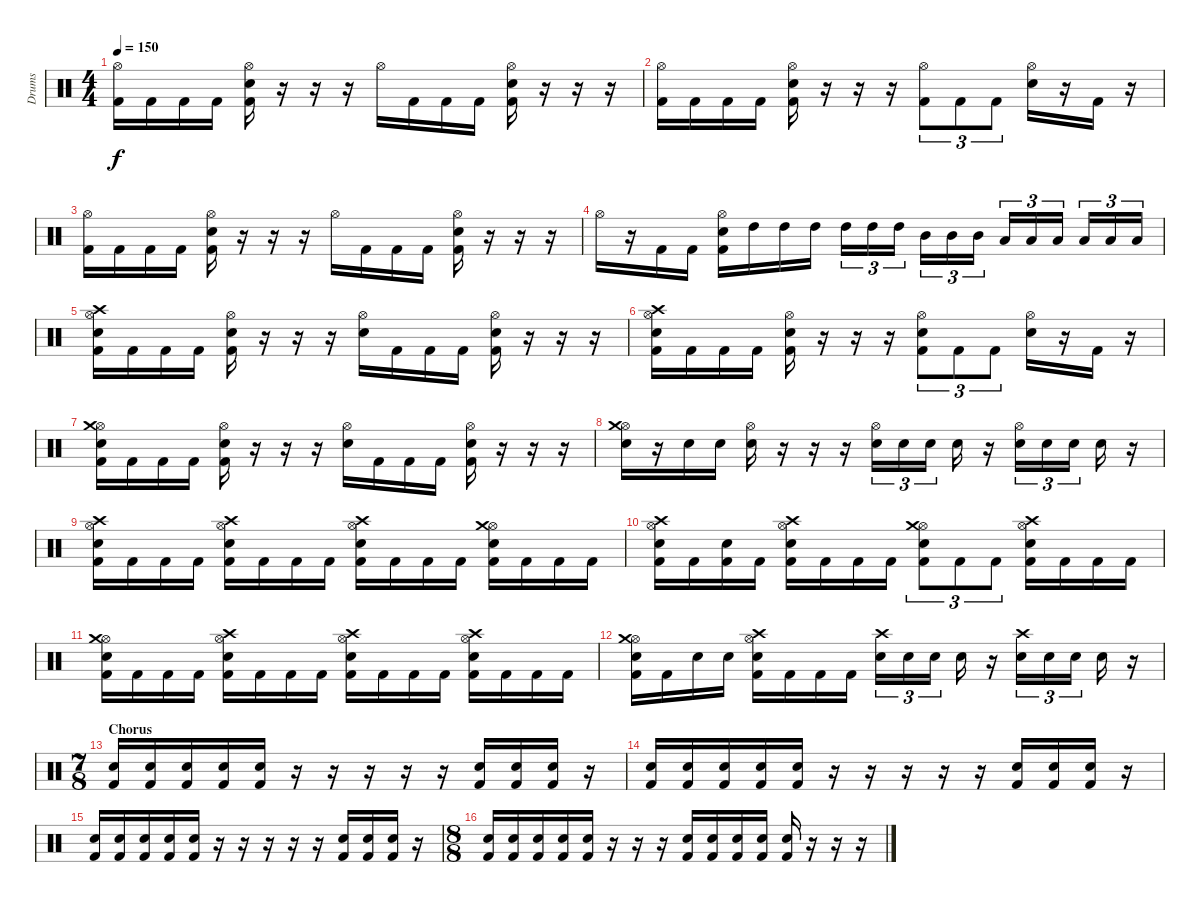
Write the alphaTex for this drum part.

\track ("Drums" "Drums") {instrument percussion}
\staff {score}
\articulation defaults
\ts (4 4)
\tempo 150
\clef neutral
\ks c
("Hi-Hat (open)" "Kick (hit) 2").16{dy f} "Kick (hit) 2".16 "Kick (hit) 2".16 "Kick (hit) 2".16 ("Hi-Hat (open)" "Electric Snare (hit)" "Kick (hit) 2").16 r.16 r.16 r.16 "Hi-Hat (open)".16 "Kick (hit) 2".16 "Kick (hit) 2".16 "Kick (hit) 2".16 ("Hi-Hat (open)" "Electric Snare (hit)" "Kick (hit) 2").16 r.16 r.16 r.16 |
("Hi-Hat (open)" "Kick (hit) 2").16 "Kick (hit) 2".16 "Kick (hit) 2".16 "Kick (hit) 2".16 ("Hi-Hat (open)" "Electric Snare (hit)" "Kick (hit) 2").16 r.16 r.16 r.16 ("Hi-Hat (open)" "Kick (hit) 2").8{tu (3 2)} "Kick (hit) 2".8{tu (3 2)} "Kick (hit) 2".8{tu (3 2)} ("Hi-Hat (open)" "Electric Snare (hit)").16 r.16 "Kick (hit) 2".16 r.16 |
("Hi-Hat (open)" "Kick (hit) 2").16 "Kick (hit) 2".16 "Kick (hit) 2".16 "Kick (hit) 2".16 ("Hi-Hat (open)" "Electric Snare (hit)" "Kick (hit) 2").16 r.16 r.16 r.16 "Hi-Hat (open)".16 "Kick (hit) 2".16 "Kick (hit) 2".16 "Kick (hit) 2".16 ("Hi-Hat (open)" "Electric Snare (hit)" "Kick (hit) 2").16 r.16 r.16 r.16 |
"Hi-Hat (open)".16 r.16 "Kick (hit) 2".16 "Kick (hit) 2".16 ("Hi-Hat (open)" "Electric Snare (hit)" "Kick (hit) 2").16 "High Tom (hit)".16 "High Tom (hit)".16 "High Tom (hit)".16 "High Tom (hit)".16{tu (3 2)} "High Tom (hit)".16{tu (3 2)} "High Tom (hit)".16{tu (3 2)} "Mid Tom (hit)".16{tu (3 2)} "Mid Tom (hit)".16{tu (3 2)} "Mid Tom (hit)".16{tu (3 2)} "Low Tom (hit)".16{tu (3 2)} "Low Tom (hit)".16{tu (3 2)} "Low Tom (hit)".16{tu (3 2)} "Low Tom (hit)".16{tu (3 2)} "Low Tom (hit)".16{tu (3 2)} "Low Tom (hit)".16{tu (3 2)} |
("Hi-Hat (open)" "Electric Snare (hit)" "Crash high (hit)" "Kick (hit) 2").16 "Kick (hit) 2".16 "Kick (hit) 2".16 "Kick (hit) 2".16 ("Hi-Hat (open)" "Electric Snare (hit)" "Kick (hit) 2").16 r.16 r.16 r.16 ("Hi-Hat (open)" "Electric Snare (hit)").16 "Kick (hit) 2".16 "Kick (hit) 2".16 "Kick (hit) 2".16 ("Hi-Hat (open)" "Electric Snare (hit)" "Kick (hit) 2").16 r.16 r.16 r.16 |
("Hi-Hat (open)" "Electric Snare (hit)" "Crash high (hit)" "Kick (hit) 2").16 "Kick (hit) 2".16 "Kick (hit) 2".16 "Kick (hit) 2".16 ("Hi-Hat (open)" "Electric Snare (hit)" "Kick (hit) 2").16 r.16 r.16 r.16 ("Hi-Hat (open)" "Electric Snare (hit)" "Kick (hit) 2").8{tu (3 2)} "Kick (hit) 2".8{tu (3 2)} "Kick (hit) 2".8{tu (3 2)} ("Hi-Hat (open)" "Electric Snare (hit)").16 r.16 "Kick (hit) 2".16 r.16 |
("Hi-Hat (open)" "Crash medium (hit)" "Electric Snare (hit)" "Kick (hit) 2").16 "Kick (hit) 2".16 "Kick (hit) 2".16 "Kick (hit) 2".16 ("Hi-Hat (open)" "Electric Snare (hit)" "Kick (hit) 2").16 r.16 r.16 r.16 ("Hi-Hat (open)" "Electric Snare (hit)").16 "Kick (hit) 2".16 "Kick (hit) 2".16 "Kick (hit) 2".16 ("Hi-Hat (open)" "Electric Snare (hit)" "Kick (hit) 2").16 r.16 r.16 r.16 |
("Hi-Hat (open)" "Crash medium (hit)" "Electric Snare (hit)").16 r.16 "Electric Snare (hit)".16 "Electric Snare (hit)".16 ("Hi-Hat (open)" "Electric Snare (hit)").16 r.16 r.16 r.16 ("Hi-Hat (open)" "Electric Snare (hit)").16{tu (3 2)} "Electric Snare (hit)".16{tu (3 2)} "Electric Snare (hit)".16{tu (3 2)} "Electric Snare (hit)".16 r.16 ("Hi-Hat (open)" "Electric Snare (hit)").16{tu (3 2)} "Electric Snare (hit)".16{tu (3 2)} "Electric Snare (hit)".16{tu (3 2)} "Electric Snare (hit)".16 r.16 |
("Hi-Hat (open)" "Electric Snare (hit)" "Crash high (hit)" "Kick (hit) 2").16 "Kick (hit) 2".16 "Kick (hit) 2".16 "Kick (hit) 2".16 ("Hi-Hat (open)" "Crash high (hit)" "Electric Snare (hit)" "Kick (hit) 2").16 "Kick (hit) 2".16 "Kick (hit) 2".16 "Kick (hit) 2".16 ("Hi-Hat (open)" "Crash high (hit)" "Electric Snare (hit)" "Kick (hit) 2").16 "Kick (hit) 2".16 "Kick (hit) 2".16 "Kick (hit) 2".16 ("Hi-Hat (open)" "Crash medium (hit)" "Electric Snare (hit)" "Kick (hit) 2").16 "Kick (hit) 2".16 "Kick (hit) 2".16 "Kick (hit) 2".16 |
("Hi-Hat (open)" "Electric Snare (hit)" "Crash high (hit)" "Kick (hit) 2").16 "Kick (hit) 2".16 ("Electric Snare (hit)" "Kick (hit) 2").16 "Kick (hit) 2".16 ("Hi-Hat (open)" "Crash high (hit)" "Electric Snare (hit)" "Kick (hit) 2").16 "Kick (hit) 2".16 "Kick (hit) 2".16 "Kick (hit) 2".16 ("Hi-Hat (open)" "Crash medium (hit)" "Electric Snare (hit)" "Kick (hit) 2").8{tu (3 2)} "Kick (hit) 2".8{tu (3 2)} "Kick (hit) 2".8{tu (3 2)} ("Hi-Hat (open)" "Crash high (hit)" "Electric Snare (hit)" "Kick (hit) 2").16 "Kick (hit) 2".16 "Kick (hit) 2".16 "Kick (hit) 2".16 |
("Hi-Hat (open)" "Crash medium (hit)" "Electric Snare (hit)" "Kick (hit) 2").16 "Kick (hit) 2".16 "Kick (hit) 2".16 "Kick (hit) 2".16 ("Hi-Hat (open)" "Crash high (hit)" "Electric Snare (hit)" "Kick (hit) 2").16 "Kick (hit) 2".16 "Kick (hit) 2".16 "Kick (hit) 2".16 ("Hi-Hat (open)" "Crash high (hit)" "Electric Snare (hit)" "Kick (hit) 2").16 "Kick (hit) 2".16 "Kick (hit) 2".16 "Kick (hit) 2".16 ("Crash high (hit)" "Hi-Hat (open)" "Electric Snare (hit)" "Kick (hit) 2").16 "Kick (hit) 2".16 "Kick (hit) 2".16 "Kick (hit) 2".16 |
("Hi-Hat (open)" "Crash medium (hit)" "Electric Snare (hit)" "Kick (hit) 2").16 "Kick (hit) 2".16 "Electric Snare (hit)".16 "Electric Snare (hit)".16 ("Hi-Hat (open)" "Crash high (hit)" "Electric Snare (hit)" "Kick (hit) 2").16 "Kick (hit) 2".16 "Kick (hit) 2".16 "Kick (hit) 2".16 ("Crash high (hit)" "Electric Snare (hit)").16{tu (3 2)} "Electric Snare (hit)".16{tu (3 2)} "Electric Snare (hit)".16{tu (3 2)} "Electric Snare (hit)".16 r.16 ("Crash high (hit)" "Electric Snare (hit)").16{tu (3 2)} "Electric Snare (hit)".16{tu (3 2)} "Electric Snare (hit)".16{tu (3 2)} "Electric Snare (hit)".16 r.16 |
\ts (7 8)
\section ("" "Chorus")
("Electric Snare (hit)" "Kick (hit) 2").16 ("Electric Snare (hit)" "Kick (hit) 2").16 ("Electric Snare (hit)" "Kick (hit) 2").16 ("Electric Snare (hit)" "Kick (hit) 2").16 ("Electric Snare (hit)" "Kick (hit) 2").16 r.16 r.16 r.16 r.16 r.16 ("Electric Snare (hit)" "Kick (hit) 2").16 ("Electric Snare (hit)" "Kick (hit) 2").16 ("Electric Snare (hit)" "Kick (hit) 2").16 r.16 |
("Electric Snare (hit)" "Kick (hit) 2").16 ("Electric Snare (hit)" "Kick (hit) 2").16 ("Electric Snare (hit)" "Kick (hit) 2").16 ("Electric Snare (hit)" "Kick (hit) 2").16 ("Electric Snare (hit)" "Kick (hit) 2").16 r.16 r.16 r.16 r.16 r.16 ("Electric Snare (hit)" "Kick (hit) 2").16 ("Electric Snare (hit)" "Kick (hit) 2").16 ("Electric Snare (hit)" "Kick (hit) 2").16 r.16 |
("Electric Snare (hit)" "Kick (hit) 2").16 ("Electric Snare (hit)" "Kick (hit) 2").16 ("Electric Snare (hit)" "Kick (hit) 2").16 ("Electric Snare (hit)" "Kick (hit) 2").16 ("Electric Snare (hit)" "Kick (hit) 2").16 r.16 r.16 r.16 r.16 r.16 ("Electric Snare (hit)" "Kick (hit) 2").16 ("Electric Snare (hit)" "Kick (hit) 2").16 ("Electric Snare (hit)" "Kick (hit) 2").16 r.16 |
\ts (8 8)
("Electric Snare (hit)" "Kick (hit) 2").16 ("Electric Snare (hit)" "Kick (hit) 2").16 ("Electric Snare (hit)" "Kick (hit) 2").16 ("Electric Snare (hit)" "Kick (hit) 2").16 ("Electric Snare (hit)" "Kick (hit) 2").16 r.16 r.16 r.16 ("Electric Snare (hit)" "Kick (hit) 2").16 ("Electric Snare (hit)" "Kick (hit) 2").16 ("Electric Snare (hit)" "Kick (hit) 2").16 ("Electric Snare (hit)" "Kick (hit) 2").16 ("Electric Snare (hit)" "Kick (hit) 2").16 r.16 r.16 r.16
